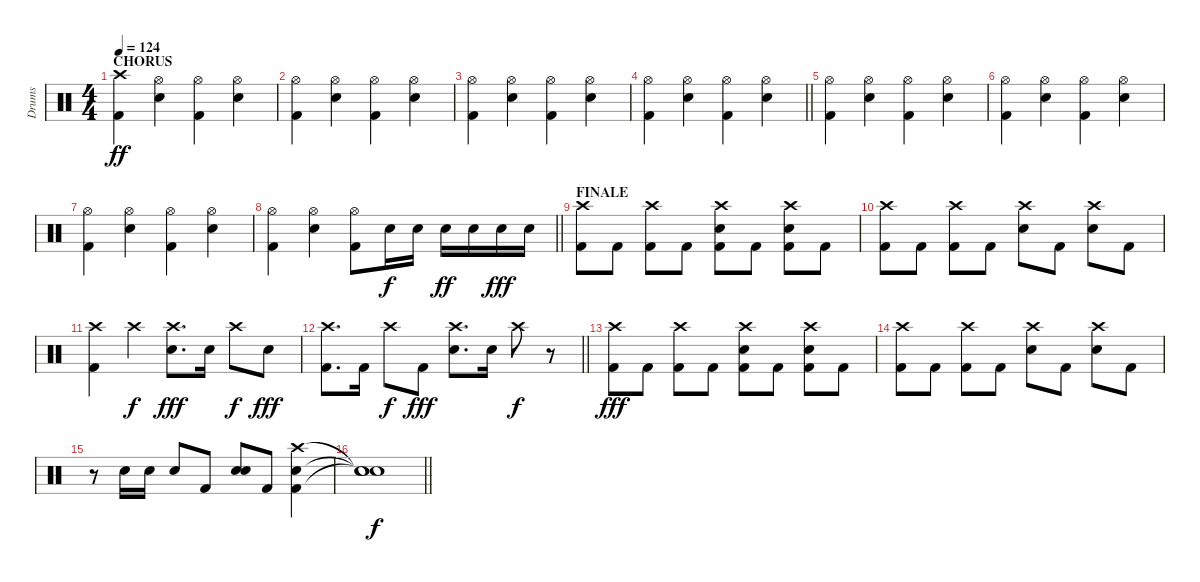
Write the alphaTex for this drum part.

\track ("Drums" "Drums") {instrument percussion}
\staff {score}
\articulation defaults
\ts (4 4)
\section ("" "CHORUS")
\tempo 124
\clef neutral
\ks c
("Crash high (hit)" "Kick (hit) 2").4{dy ff} ("Hi-Hat (open)" "Electric Snare (hit)").4 ("Hi-Hat (open)" "Kick (hit) 2").4 ("Hi-Hat (open)" "Electric Snare (hit)").4 |
("Hi-Hat (open)" "Kick (hit) 2").4 ("Hi-Hat (open)" "Electric Snare (hit)").4 ("Hi-Hat (open)" "Kick (hit) 2").4 ("Hi-Hat (open)" "Electric Snare (hit)").4 |
("Hi-Hat (open)" "Kick (hit) 2").4 ("Hi-Hat (open)" "Electric Snare (hit)").4 ("Hi-Hat (open)" "Kick (hit) 2").4 ("Hi-Hat (open)" "Electric Snare (hit)").4 |
\barLineRight lightlight
("Hi-Hat (open)" "Kick (hit) 2").4 ("Hi-Hat (open)" "Electric Snare (hit)").4 ("Hi-Hat (open)" "Kick (hit) 2").4 ("Hi-Hat (open)" "Electric Snare (hit)").4 |
\section ("" "")
("Hi-Hat (open)" "Kick (hit) 2").4 ("Hi-Hat (open)" "Electric Snare (hit)").4 ("Hi-Hat (open)" "Kick (hit) 2").4 ("Hi-Hat (open)" "Electric Snare (hit)").4 |
("Hi-Hat (open)" "Kick (hit) 2").4 ("Hi-Hat (open)" "Electric Snare (hit)").4 ("Hi-Hat (open)" "Kick (hit) 2").4 ("Hi-Hat (open)" "Electric Snare (hit)").4 |
("Hi-Hat (open)" "Kick (hit) 2").4 ("Hi-Hat (open)" "Electric Snare (hit)").4 ("Hi-Hat (open)" "Kick (hit) 2").4 ("Hi-Hat (open)" "Electric Snare (hit)").4 |
\barLineRight lightlight
("Hi-Hat (open)" "Kick (hit) 2").4 ("Hi-Hat (open)" "Electric Snare (hit)").4 ("Hi-Hat (open)" "Kick (hit) 2").8 "Electric Snare (hit)".16{dy f} "Electric Snare (hit)".16 "Electric Snare (hit)".16{dy ff} "Electric Snare (hit)".16 "Electric Snare (hit)".16{dy fff} "Electric Snare (hit)".16 |
\section ("" "FINALE")
("Crash high (hit)" "Kick (hit) 2").8 "Kick (hit) 2".8 ("Crash high (hit)" "Kick (hit) 2").8 "Kick (hit) 2".8 ("Crash high (hit)" "Electric Snare (hit)" "Kick (hit) 2").8 "Kick (hit) 2".8 ("Crash high (hit)" "Electric Snare (hit)" "Kick (hit) 2").8 "Kick (hit) 2".8 |
("Crash high (hit)" "Kick (hit) 2").8 "Kick (hit) 2".8 ("Crash high (hit)" "Kick (hit) 2").8 "Kick (hit) 2".8 ("Crash high (hit)" "Electric Snare (hit)").8 "Kick (hit) 2".8 ("Crash high (hit)" "Electric Snare (hit)").8 "Kick (hit) 2".8 |
("Crash high (hit)" "Kick (hit) 2").4 "Crash high (hit)".4{dy f} ("Crash high (hit)" "Electric Snare (hit)").8{d dy fff} "Electric Snare (hit)".16 "Crash high (hit)".8{dy f} "Electric Snare (hit)".8{dy fff} |
\barLineRight lightlight
("Crash high (hit)" "Kick (hit) 2").8{d} "Kick (hit) 2".16 "Crash high (hit)".8{dy f} "Kick (hit) 2".8{dy fff} ("Crash high (hit)" "Electric Snare (hit)").8{d} "Electric Snare (hit)".16 "Crash high (hit)".8{dy f} r.8 |
\section ("" "")
("Crash high (hit)" "Kick (hit) 2").8{dy fff} "Kick (hit) 2".8 ("Crash high (hit)" "Kick (hit) 2").8 "Kick (hit) 2".8 ("Crash high (hit)" "Electric Snare (hit)" "Kick (hit) 2").8 "Kick (hit) 2".8 ("Crash high (hit)" "Electric Snare (hit)" "Kick (hit) 2").8 "Kick (hit) 2".8 |
("Crash high (hit)" "Kick (hit) 2").8 "Kick (hit) 2".8 ("Crash high (hit)" "Kick (hit) 2").8 "Kick (hit) 2".8 ("Crash high (hit)" "Electric Snare (hit)").8 "Kick (hit) 2".8 ("Crash high (hit)" "Electric Snare (hit)").8 "Kick (hit) 2".8 |
r.8 "Electric Snare (hit)".16 "Electric Snare (hit)".16 "Electric Snare (hit)".8 "Kick (hit) 2".8 ("Electric Snare (hit)" "Electric Snare (hit)").8{bd 120} "Kick (hit) 2".8 ("Crash high (hit)" "Electric Snare (hit)" "Kick (hit) 2").4 |
\barLineRight lightlight
("Snare (hit)"{t} "Snare (hit)"{t} "Snare (hit)"{t}).1{dy f}
